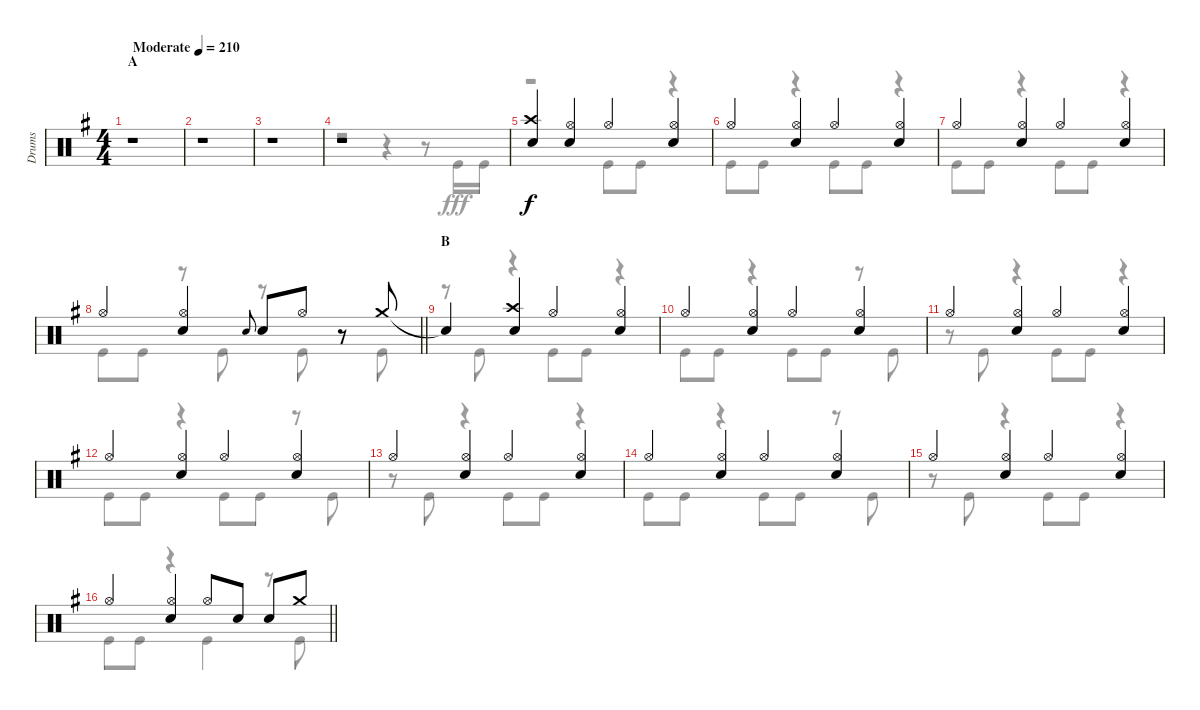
\track ("Drums" "Drums") {instrument percussion}
\staff {score}
\articulation defaults
\voice
\ts (4 4)
\section ("" "A")
\tempo (210 "Moderate")
\clef neutral
\ks g
r.1{dy f} |
r.1 |
r.1 |
r.1 |
("Crash high (hit)" "Snare (hit) 2").4 ("Hi-Hat (open)" "Snare (hit) 2").4 "Hi-Hat (open)".4 ("Hi-Hat (open)" "Snare (hit) 2").4 |
"Hi-Hat (open)".4 ("Hi-Hat (open)" "Snare (hit) 2").4 "Hi-Hat (open)".4 ("Hi-Hat (open)" "Snare (hit) 2").4 |
"Hi-Hat (open)".4 ("Hi-Hat (open)" "Snare (hit) 2").4 "Hi-Hat (open)".4 ("Hi-Hat (open)" "Snare (hit) 2").4 |
\barLineRight lightlight "Hi-Hat (open)".4
("Hi-Hat (open)" "Snare (hit) 2").4 "Snare (hit) 2".8{gr onbeat} "Snare (hit) 2".8 "Hi-Hat (open)".8 r.8 "Crash medium (hit)".8 |
\section ("" "B")
"Snare (hit)"{t}.4 ("Crash high (hit)" "Snare (hit) 2").4 "Hi-Hat (open)".4 ("Hi-Hat (open)" "Snare (hit) 2").4 |
"Hi-Hat (open)".4 ("Hi-Hat (open)" "Snare (hit) 2").4 "Hi-Hat (open)".4 ("Hi-Hat (open)" "Snare (hit) 2").4 |
"Hi-Hat (open)".4 ("Hi-Hat (open)" "Snare (hit) 2").4 "Hi-Hat (open)".4 ("Hi-Hat (open)" "Snare (hit) 2").4 |
"Hi-Hat (open)".4 ("Hi-Hat (open)" "Snare (hit) 2").4 "Hi-Hat (open)".4 ("Hi-Hat (open)" "Snare (hit) 2").4 |
"Hi-Hat (open)".4 ("Hi-Hat (open)" "Snare (hit) 2").4 "Hi-Hat (open)".4 ("Hi-Hat (open)" "Snare (hit) 2").4 |
"Hi-Hat (open)".4 ("Hi-Hat (open)" "Snare (hit) 2").4 "Hi-Hat (open)".4 ("Hi-Hat (open)" "Snare (hit) 2").4 |
"Hi-Hat (open)".4 ("Hi-Hat (open)" "Snare (hit) 2").4 "Hi-Hat (open)".4 ("Hi-Hat (open)" "Snare (hit) 2").4 |
\barLineRight lightlight "Hi-Hat (open)".4
("Hi-Hat (open)" "Snare (hit) 2").4 "Hi-Hat (open)".8 "Snare (hit) 2".8 "Snare (hit) 2".8 "Crash medium (hit)".8
\voice
\clef neutral
\ottava regular
\simile none
\ks g
r.1{dy fff} |
r.1 |
r.1 |
r.2 r.4 r.8 "Kick (hit)".16 "Kick (hit)".16 |
r.2 "Kick (hit)".8 "Kick (hit)".8 r.4 |
"Kick (hit)".8 "Kick (hit)".8 r.4 "Kick (hit)".8 "Kick (hit)".8 r.4 |
"Kick (hit)".8 "Kick (hit)".8 r.4 "Kick (hit)".8 "Kick (hit)".8 r.4 |
\barLineRight lightlight "Kick (hit)".8 "Kick (hit)".8
r.8 "Kick (hit)".8 r.8 "Kick (hit)".8 r.8 "Kick (hit)".8 |
r.8 "Kick (hit)".8 r.4 "Kick (hit)".8 "Kick (hit)".8 r.4 |
"Kick (hit)".8 "Kick (hit)".8 r.4 "Kick (hit)".8 "Kick (hit)".8 r.8 "Kick (hit)".8 |
r.8 "Kick (hit)".8 r.4 "Kick (hit)".8 "Kick (hit)".8 r.4 |
"Kick (hit)".8 "Kick (hit)".8 r.4 "Kick (hit)".8 "Kick (hit)".8 r.8 "Kick (hit)".8 |
r.8 "Kick (hit)".8 r.4 "Kick (hit)".8 "Kick (hit)".8 r.4 |
"Kick (hit)".8 "Kick (hit)".8 r.4 "Kick (hit)".8 "Kick (hit)".8 r.8 "Kick (hit)".8 |
r.8 "Kick (hit)".8 r.4 "Kick (hit)".8 "Kick (hit)".8 r.4 |
\barLineRight lightlight "Kick (hit)".8 "Kick (hit)".8
r.4 "Kick (hit)".4 r.8 "Kick (hit)".8
